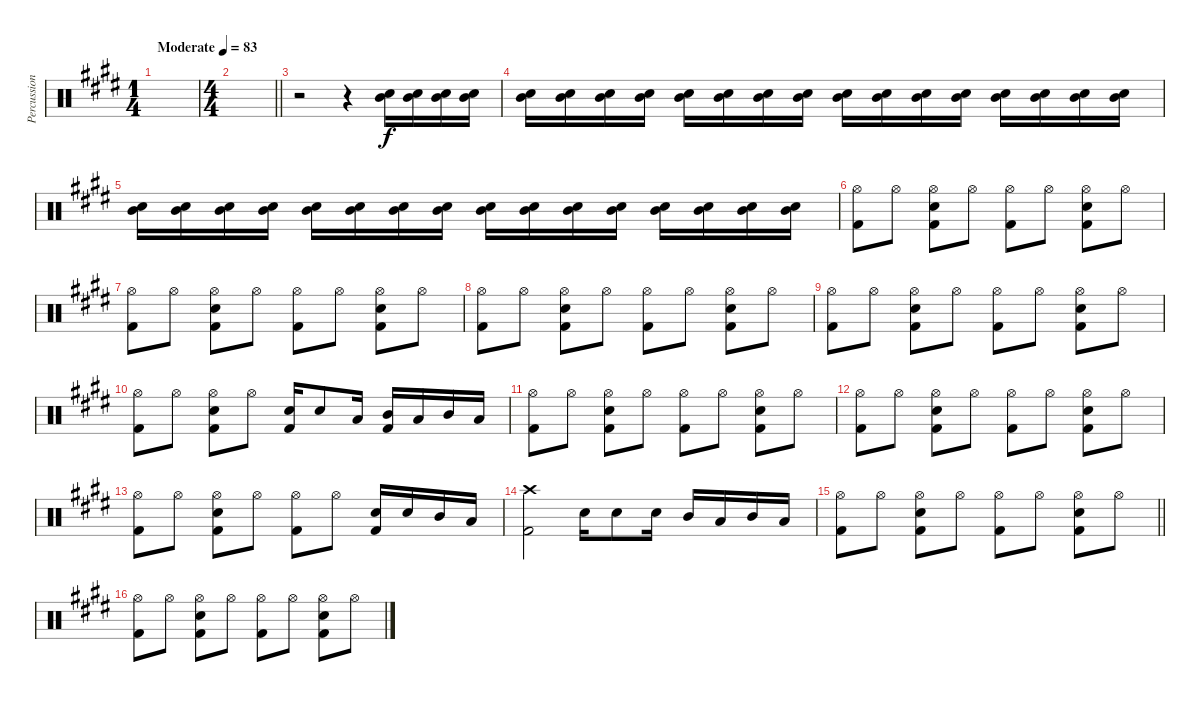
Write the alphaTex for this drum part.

\track ("Percussion" "Percussion") {instrument percussion}
\staff {score}
\articulation defaults
\ts (1 4)
\tempo (83 "Moderate")
\clef neutral
\ks e
|
\ts (4 4)
\barLineRight lightlight
|
r.2 r.4 ("Mid Tom (hit)" "Snare (hit) 2").16{volume 2} ("Mid Tom (hit)" "Snare (hit) 2").16 ("Mid Tom (hit)" "Snare (hit) 2").16 ("Mid Tom (hit)" "Snare (hit) 2").16 |
("Mid Tom (hit)" "Snare (hit) 2").16 ("Mid Tom (hit)" "Snare (hit) 2").16 ("Mid Tom (hit)" "Snare (hit) 2").16 ("Mid Tom (hit)" "Snare (hit) 2").16 ("Mid Tom (hit)" "Snare (hit) 2").16{volume 3} ("Mid Tom (hit)" "Snare (hit) 2").16 ("Mid Tom (hit)" "Snare (hit) 2").16 ("Mid Tom (hit)" "Snare (hit) 2").16 ("Mid Tom (hit)" "Snare (hit) 2").16 ("Mid Tom (hit)" "Snare (hit) 2").16 ("Mid Tom (hit)" "Snare (hit) 2").16 ("Mid Tom (hit)" "Snare (hit) 2").16 ("Mid Tom (hit)" "Snare (hit) 2").16{volume 4} ("Mid Tom (hit)" "Snare (hit) 2").16 ("Mid Tom (hit)" "Snare (hit) 2").16 ("Mid Tom (hit)" "Snare (hit) 2").16 |
("Mid Tom (hit)" "Snare (hit) 2").16 ("Mid Tom (hit)" "Snare (hit) 2").16 ("Mid Tom (hit)" "Snare (hit) 2").16 ("Mid Tom (hit)" "Snare (hit) 2").16 ("Mid Tom (hit)" "Snare (hit) 2").16{volume 5} ("Mid Tom (hit)" "Snare (hit) 2").16 ("Mid Tom (hit)" "Snare (hit) 2").16 ("Mid Tom (hit)" "Snare (hit) 2").16 ("Mid Tom (hit)" "Snare (hit) 2").16{volume 6} ("Mid Tom (hit)" "Snare (hit) 2").16 ("Mid Tom (hit)" "Snare (hit) 2").16 ("Mid Tom (hit)" "Snare (hit) 2").16 ("Mid Tom (hit)" "Snare (hit) 2").16{volume 7} ("Mid Tom (hit)" "Snare (hit) 2").16 ("Mid Tom (hit)" "Snare (hit) 2").16 ("Mid Tom (hit)" "Snare (hit) 2").16 |
("Hi-Hat (open)" "Kick (hit) 2").8{volume 13} "Hi-Hat (open)".8 ("Hi-Hat (open)" "Kick (hit) 2" "Snare (hit) 2").8 "Hi-Hat (open)".8 ("Hi-Hat (open)" "Kick (hit) 2").8 "Hi-Hat (open)".8 ("Hi-Hat (open)" "Kick (hit) 2" "Snare (hit) 2").8 "Hi-Hat (open)".8 |
("Hi-Hat (open)" "Kick (hit) 2").8 "Hi-Hat (open)".8 ("Hi-Hat (open)" "Kick (hit) 2" "Snare (hit) 2").8 "Hi-Hat (open)".8 ("Hi-Hat (open)" "Kick (hit) 2").8 "Hi-Hat (open)".8 ("Hi-Hat (open)" "Kick (hit) 2" "Snare (hit) 2").8 "Hi-Hat (open)".8 |
("Hi-Hat (open)" "Kick (hit) 2").8 "Hi-Hat (open)".8 ("Hi-Hat (open)" "Kick (hit) 2" "Snare (hit) 2").8 "Hi-Hat (open)".8 ("Hi-Hat (open)" "Kick (hit) 2").8 "Hi-Hat (open)".8 ("Hi-Hat (open)" "Kick (hit) 2" "Snare (hit) 2").8 "Hi-Hat (open)".8 |
("Hi-Hat (open)" "Kick (hit) 2").8 "Hi-Hat (open)".8 ("Hi-Hat (open)" "Kick (hit) 2" "Snare (hit) 2").8 "Hi-Hat (open)".8 ("Hi-Hat (open)" "Kick (hit) 2").8 "Hi-Hat (open)".8 ("Hi-Hat (open)" "Kick (hit) 2" "Snare (hit) 2").8 "Hi-Hat (open)".8 |
("Hi-Hat (open)" "Kick (hit) 2").8 "Hi-Hat (open)".8 ("Snare (hit) 2" "Hi-Hat (open)" "Kick (hit) 2").8 "Hi-Hat (open)".8 ("Snare (hit) 2" "Kick (hit) 2").16 "Snare (hit) 2".8 "Low Floor Tom (hit)".16 ("Mid Tom (hit)" "Kick (hit) 2").16 "Low Floor Tom (hit)".16 "Mid Tom (hit)".16 "Low Floor Tom (hit)".16 |
("Hi-Hat (open)" "Kick (hit) 2").8 "Hi-Hat (open)".8 ("Hi-Hat (open)" "Kick (hit) 2" "Snare (hit) 2").8 "Hi-Hat (open)".8 ("Hi-Hat (open)" "Kick (hit) 2").8 "Hi-Hat (open)".8 ("Hi-Hat (open)" "Kick (hit) 2" "Snare (hit) 2").8 "Hi-Hat (open)".8 |
("Hi-Hat (open)" "Kick (hit) 2").8 "Hi-Hat (open)".8 ("Hi-Hat (open)" "Kick (hit) 2" "Snare (hit) 2").8 "Hi-Hat (open)".8 ("Hi-Hat (open)" "Kick (hit) 2").8 "Hi-Hat (open)".8 ("Hi-Hat (open)" "Kick (hit) 2" "Snare (hit) 2").8 "Hi-Hat (open)".8 |
("Hi-Hat (open)" "Kick (hit) 2").8 "Hi-Hat (open)".8 ("Hi-Hat (open)" "Snare (hit) 2" "Kick (hit) 2").8 "Hi-Hat (open)".8 ("Hi-Hat (open)" "Kick (hit) 2").8 "Hi-Hat (open)".8 ("Snare (hit) 2" "Kick (hit) 2").16 "Snare (hit) 2".16 "Mid Tom (hit)".16 "Low Floor Tom (hit)".16 |
("Crash high (hit)" "Kick (hit) 2").2 "Snare (hit) 2".16 "Snare (hit) 2".8 "Snare (hit) 2".16 "Mid Tom (hit)".16 "Low Floor Tom (hit)".16 "Mid Tom (hit)".16 "Low Floor Tom (hit)".16 |
\barLineRight lightlight
("Hi-Hat (open)" "Kick (hit) 2").8 "Hi-Hat (open)".8 ("Hi-Hat (open)" "Kick (hit) 2" "Snare (hit) 2").8 "Hi-Hat (open)".8 ("Hi-Hat (open)" "Kick (hit) 2").8 "Hi-Hat (open)".8 ("Hi-Hat (open)" "Kick (hit) 2" "Snare (hit) 2").8 "Hi-Hat (open)".8 |
("Hi-Hat (open)" "Kick (hit) 2").8 "Hi-Hat (open)".8 ("Hi-Hat (open)" "Kick (hit) 2" "Snare (hit) 2").8 "Hi-Hat (open)".8 ("Hi-Hat (open)" "Kick (hit) 2").8 "Hi-Hat (open)".8 ("Hi-Hat (open)" "Kick (hit) 2" "Snare (hit) 2").8 "Hi-Hat (open)".8
